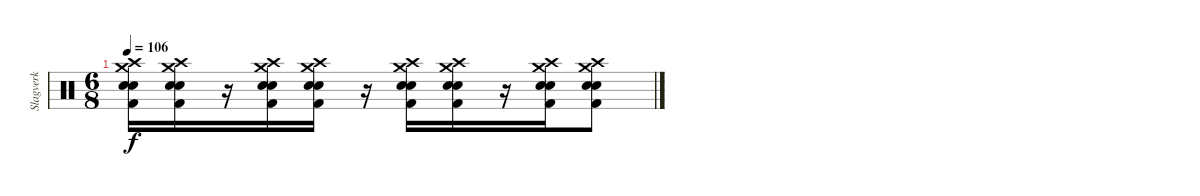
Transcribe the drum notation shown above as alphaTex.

\track ("Slagverk" "Slagverk") {instrument percussion}
\staff {score}
\articulation defaults
\ts (6 8)
\tempo 106
\clef neutral
\ks c
("Crash medium (hit)" "Crash high (hit)" "Snare (hit) 2" "Electric Snare (hit)" "Kick (hit) 2").16{dy f} ("Crash medium (hit)" "Crash high (hit)" "Snare (hit) 2" "Electric Snare (hit)" "Kick (hit) 2").16 r.16 ("Crash medium (hit)" "Crash high (hit)" "Snare (hit) 2" "Electric Snare (hit)" "Kick (hit) 2").16 ("Crash medium (hit)" "Crash high (hit)" "Snare (hit) 2" "Electric Snare (hit)" "Kick (hit) 2").16 r.16 ("Crash medium (hit)" "Crash high (hit)" "Snare (hit) 2" "Electric Snare (hit)" "Kick (hit) 2").16 ("Crash medium (hit)" "Crash high (hit)" "Snare (hit) 2" "Electric Snare (hit)" "Kick (hit) 2").16 r.16 ("Crash medium (hit)" "Crash high (hit)" "Snare (hit) 2" "Electric Snare (hit)" "Kick (hit) 2").16 ("Crash medium (hit)" "Crash high (hit)" "Snare (hit) 2" "Electric Snare (hit)" "Kick (hit) 2").8
